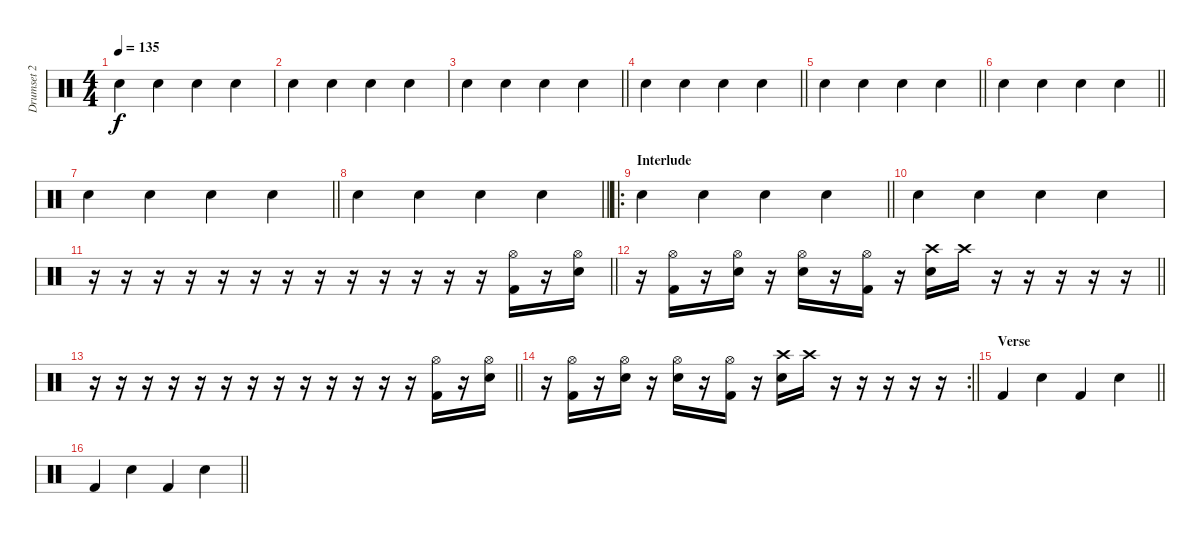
\track ("Drumset 2" "Drumset 2") {instrument percussion}
\staff {score}
\articulation defaults
\ts (4 4)
\tempo 135
\clef neutral
\ks c "Electric Snare (hit)".4{dy f} "Electric Snare (hit)".4 "Electric Snare (hit)".4 "Electric Snare (hit)".4
|
"Electric Snare (hit)".4 "Electric Snare (hit)".4 "Electric Snare (hit)".4 "Electric Snare (hit)".4 |
\barLineRight lightlight "Electric Snare (hit)".4 "Electric Snare (hit)".4 "Electric Snare (hit)".4 "Electric Snare (hit)".4
|
\barLineRight lightlight "Electric Snare (hit)".4 "Electric Snare (hit)".4 "Electric Snare (hit)".4 "Electric Snare (hit)".4
|
\barLineRight lightlight "Electric Snare (hit)".4 "Electric Snare (hit)".4 "Electric Snare (hit)".4 "Electric Snare (hit)".4
|
\barLineRight lightlight "Electric Snare (hit)".4 "Electric Snare (hit)".4 "Electric Snare (hit)".4 "Electric Snare (hit)".4
|
\barLineRight lightlight "Electric Snare (hit)".4 "Electric Snare (hit)".4 "Electric Snare (hit)".4 "Electric Snare (hit)".4
|
\barLineRight lightlight "Electric Snare (hit)".4 "Electric Snare (hit)".4 "Electric Snare (hit)".4 "Electric Snare (hit)".4
|
\ro
\section ("" "Interlude")
\barLineRight lightlight "Electric Snare (hit)".4 "Electric Snare (hit)".4 "Electric Snare (hit)".4 "Electric Snare (hit)".4
|
"Electric Snare (hit)".4 "Electric Snare (hit)".4 "Electric Snare (hit)".4 "Electric Snare (hit)".4 |
\barLineRight lightlight
r.16 r.16 r.16 r.16 r.16 r.16 r.16 r.16 r.16 r.16 r.16 r.16 r.16 ("Hi-Hat (open)" "Kick (hit) 2").16 r.16 ("Hi-Hat (open)" "Electric Snare (hit)").16 |
\barLineRight lightlight
r.16 ("Hi-Hat (open)" "Kick (hit) 2").16 r.16 ("Hi-Hat (open)" "Electric Snare (hit)").16 r.16 ("Hi-Hat (open)" "Electric Snare (hit)").16 r.16 ("Hi-Hat (open)" "Kick (hit) 2").16 r.16 ("Crash high (hit)" "Electric Snare (hit)").16 "Crash high (hit)".16 r.16 r.16 r.16 r.16 r.16 |
\barLineRight lightlight
r.16 r.16 r.16 r.16 r.16 r.16 r.16 r.16 r.16 r.16 r.16 r.16 r.16 ("Hi-Hat (open)" "Kick (hit) 2").16 r.16 ("Hi-Hat (open)" "Electric Snare (hit)").16 |
\rc 2
\barLineRight lightlight
r.16 ("Hi-Hat (open)" "Kick (hit) 2").16 r.16 ("Hi-Hat (open)" "Electric Snare (hit)").16 r.16 ("Hi-Hat (open)" "Electric Snare (hit)").16 r.16 ("Hi-Hat (open)" "Kick (hit) 2").16 r.16 ("Crash high (hit)" "Electric Snare (hit)").16 "Crash high (hit)".16 r.16 r.16 r.16 r.16 r.16 |
\section ("" "Verse")
\barLineRight lightlight "Kick (hit) 2".4 "Electric Snare (hit)".4 "Kick (hit) 2".4 "Electric Snare (hit)".4
|
\barLineRight lightlight "Kick (hit) 2".4 "Electric Snare (hit)".4 "Kick (hit) 2".4 "Electric Snare (hit)".4
